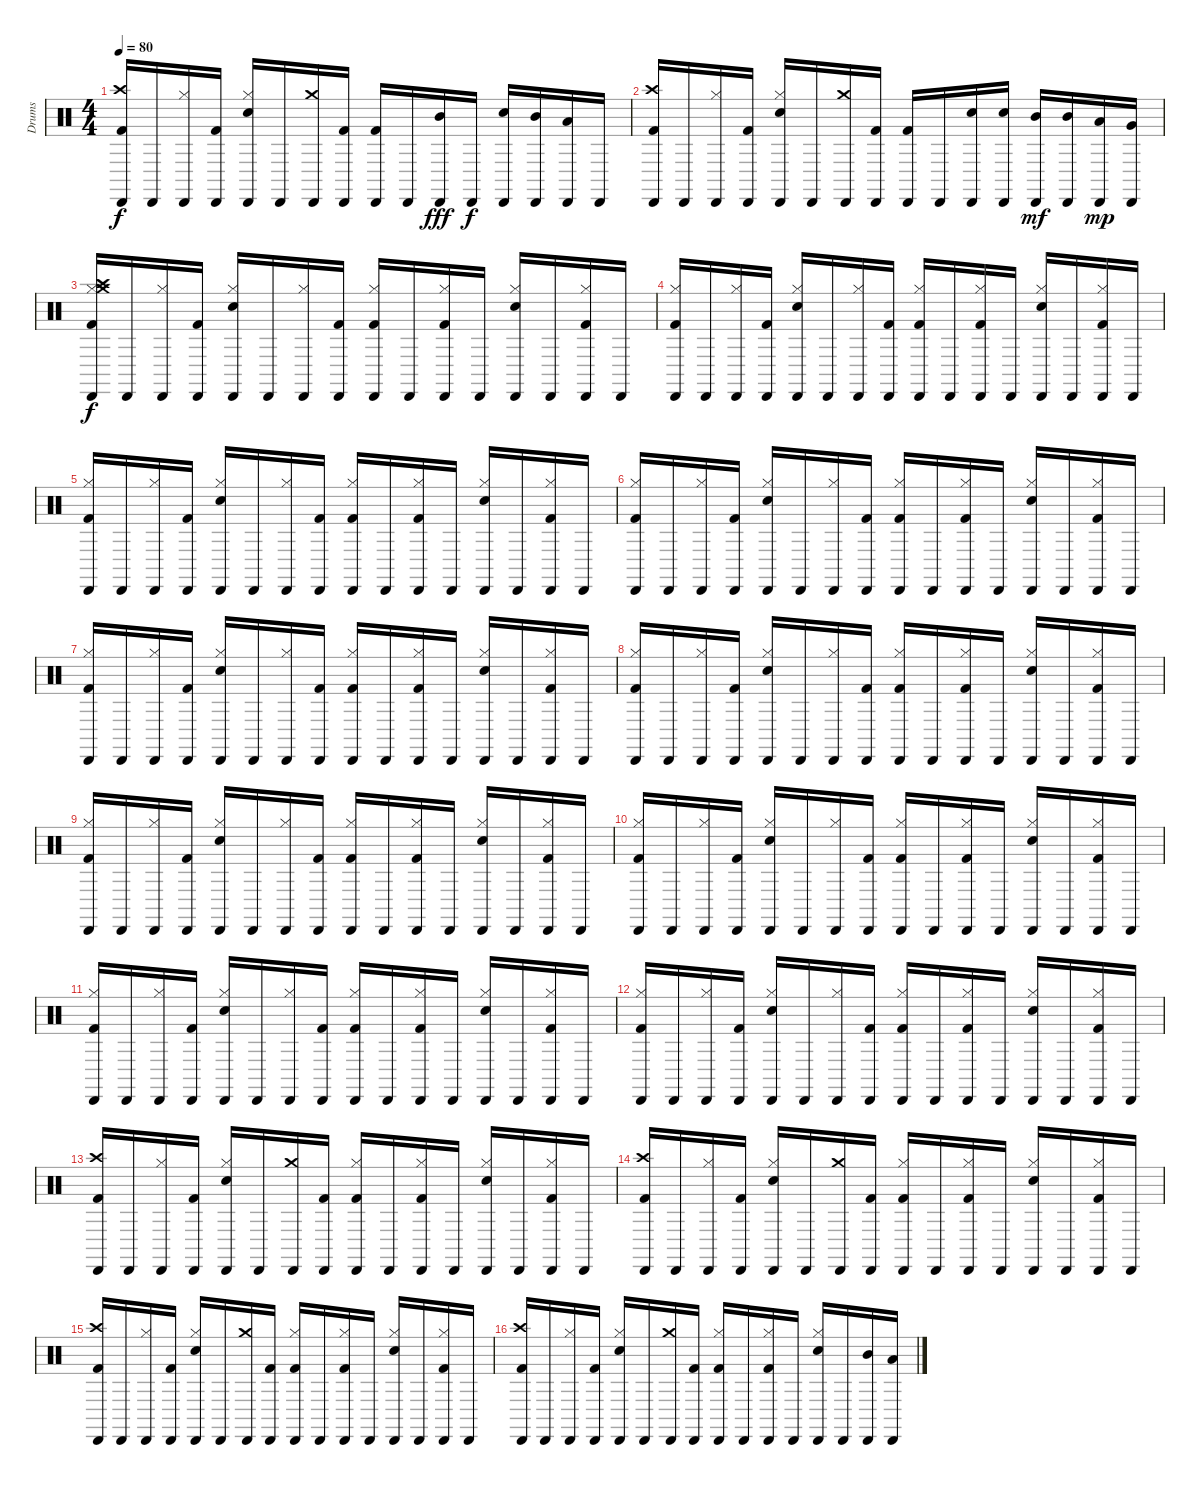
\track ("Drums" "Drums") {instrument percussion}
\staff {score}
\articulation defaults
\ts (4 4)
\tempo 80
\clef neutral
\ks c
("Cabasa (hit)" "Kick (hit) 2" "Crash high (hit)").16{dy f} "Cabasa (hit)".16 ("Cabasa (hit)" "Hi-Hat (closed)").16 ("Cabasa (hit)" "Kick (hit) 2").16 ("Cabasa (hit)" "Electric Snare (hit)" "Hi-Hat (closed)").16 "Cabasa (hit)".16 ("Cabasa (hit)" "Crash medium (hit)").16 ("Cabasa (hit)" "Kick (hit) 2").16 ("Cabasa (hit)" "Kick (hit) 2").16 "Cabasa (hit)".16 ("Cabasa (hit)" "Mid Tom (hit)").16{dy fff} "Cabasa (hit)".16{dy f} ("Cabasa (hit)" "Electric Snare (hit)").16 ("Cabasa (hit)" "Mid Tom (hit)").16 ("Cabasa (hit)" "Low Tom (hit)").16 "Cabasa (hit)".16 |
("Cabasa (hit)" "Kick (hit) 2" "Crash high (hit)").16 "Cabasa (hit)".16 ("Cabasa (hit)" "Hi-Hat (closed)").16 ("Cabasa (hit)" "Kick (hit) 2").16 ("Cabasa (hit)" "Electric Snare (hit)" "Hi-Hat (closed)").16 "Cabasa (hit)".16 ("Cabasa (hit)" "Crash medium (hit)").16 ("Cabasa (hit)" "Kick (hit) 2").16 ("Cabasa (hit)" "Kick (hit) 2").16 "Cabasa (hit)".16 ("Cabasa (hit)" "Electric Snare (hit)").16 ("Cabasa (hit)" "Electric Snare (hit)").16 ("Cabasa (hit)" "Mid Tom (hit)").16{dy mf} ("Cabasa (hit)" "Mid Tom (hit)").16 ("Cabasa (hit)" "Low Tom (hit)").16{dy mp} ("Cabasa (hit)" "Very Low Tom (hit)").16 |
("Cabasa (hit)" "Hi-Hat (closed)" "Kick (hit) 2" "Crash medium (hit)" "Crash high (hit)").16{dy f} "Cabasa (hit)".16 ("Cabasa (hit)" "Hi-Hat (closed)").16 ("Cabasa (hit)" "Kick (hit) 2").16 ("Cabasa (hit)" "Hi-Hat (closed)" "Electric Snare (hit)").16 "Cabasa (hit)".16 ("Cabasa (hit)" "Hi-Hat (closed)").16 ("Cabasa (hit)" "Kick (hit) 2").16 ("Cabasa (hit)" "Hi-Hat (closed)" "Kick (hit) 2").16 "Cabasa (hit)".16 ("Cabasa (hit)" "Hi-Hat (closed)" "Kick (hit) 2").16 "Cabasa (hit)".16 ("Cabasa (hit)" "Hi-Hat (closed)" "Electric Snare (hit)").16 "Cabasa (hit)".16 ("Cabasa (hit)" "Hi-Hat (closed)" "Kick (hit) 2").16 "Cabasa (hit)".16 |
("Cabasa (hit)" "Hi-Hat (closed)" "Kick (hit) 2").16 "Cabasa (hit)".16 ("Cabasa (hit)" "Hi-Hat (closed)").16 ("Cabasa (hit)" "Kick (hit) 2").16 ("Cabasa (hit)" "Hi-Hat (closed)" "Electric Snare (hit)").16 "Cabasa (hit)".16 ("Cabasa (hit)" "Hi-Hat (closed)").16 ("Cabasa (hit)" "Kick (hit) 2").16 ("Cabasa (hit)" "Hi-Hat (closed)" "Kick (hit) 2").16 "Cabasa (hit)".16 ("Cabasa (hit)" "Hi-Hat (closed)" "Kick (hit) 2").16 "Cabasa (hit)".16 ("Cabasa (hit)" "Hi-Hat (closed)" "Electric Snare (hit)").16 "Cabasa (hit)".16 ("Cabasa (hit)" "Hi-Hat (closed)" "Kick (hit) 2").16 "Cabasa (hit)".16 |
("Cabasa (hit)" "Hi-Hat (closed)" "Kick (hit) 2").16 "Cabasa (hit)".16 ("Cabasa (hit)" "Hi-Hat (closed)").16 ("Cabasa (hit)" "Kick (hit) 2").16 ("Cabasa (hit)" "Hi-Hat (closed)" "Electric Snare (hit)").16 "Cabasa (hit)".16 ("Cabasa (hit)" "Hi-Hat (closed)").16 ("Cabasa (hit)" "Kick (hit) 2").16 ("Cabasa (hit)" "Hi-Hat (closed)" "Kick (hit) 2").16 "Cabasa (hit)".16 ("Cabasa (hit)" "Hi-Hat (closed)" "Kick (hit) 2").16 "Cabasa (hit)".16 ("Cabasa (hit)" "Hi-Hat (closed)" "Electric Snare (hit)").16 "Cabasa (hit)".16 ("Cabasa (hit)" "Hi-Hat (closed)" "Kick (hit) 2").16 "Cabasa (hit)".16 |
("Cabasa (hit)" "Hi-Hat (closed)" "Kick (hit) 2").16 "Cabasa (hit)".16 ("Cabasa (hit)" "Hi-Hat (closed)").16 ("Cabasa (hit)" "Kick (hit) 2").16 ("Cabasa (hit)" "Hi-Hat (closed)" "Electric Snare (hit)").16 "Cabasa (hit)".16 ("Cabasa (hit)" "Hi-Hat (closed)").16 ("Cabasa (hit)" "Kick (hit) 2").16 ("Cabasa (hit)" "Hi-Hat (closed)" "Kick (hit) 2").16 "Cabasa (hit)".16 ("Cabasa (hit)" "Hi-Hat (closed)" "Kick (hit) 2").16 "Cabasa (hit)".16 ("Cabasa (hit)" "Hi-Hat (closed)" "Electric Snare (hit)").16 "Cabasa (hit)".16 ("Cabasa (hit)" "Hi-Hat (closed)" "Kick (hit) 2").16 "Cabasa (hit)".16 |
("Cabasa (hit)" "Hi-Hat (closed)" "Kick (hit) 2").16 "Cabasa (hit)".16 ("Cabasa (hit)" "Hi-Hat (closed)").16 ("Cabasa (hit)" "Kick (hit) 2").16 ("Cabasa (hit)" "Hi-Hat (closed)" "Electric Snare (hit)").16 "Cabasa (hit)".16 ("Cabasa (hit)" "Hi-Hat (closed)").16 ("Cabasa (hit)" "Kick (hit) 2").16 ("Cabasa (hit)" "Hi-Hat (closed)" "Kick (hit) 2").16 "Cabasa (hit)".16 ("Cabasa (hit)" "Hi-Hat (closed)" "Kick (hit) 2").16 "Cabasa (hit)".16 ("Cabasa (hit)" "Hi-Hat (closed)" "Electric Snare (hit)").16 "Cabasa (hit)".16 ("Cabasa (hit)" "Hi-Hat (closed)" "Kick (hit) 2").16 "Cabasa (hit)".16 |
("Cabasa (hit)" "Hi-Hat (closed)" "Kick (hit) 2").16 "Cabasa (hit)".16 ("Cabasa (hit)" "Hi-Hat (closed)").16 ("Cabasa (hit)" "Kick (hit) 2").16 ("Cabasa (hit)" "Hi-Hat (closed)" "Electric Snare (hit)").16 "Cabasa (hit)".16 ("Cabasa (hit)" "Hi-Hat (closed)").16 ("Cabasa (hit)" "Kick (hit) 2").16 ("Cabasa (hit)" "Hi-Hat (closed)" "Kick (hit) 2").16 "Cabasa (hit)".16 ("Cabasa (hit)" "Hi-Hat (closed)" "Kick (hit) 2").16 "Cabasa (hit)".16 ("Cabasa (hit)" "Hi-Hat (closed)" "Electric Snare (hit)").16 "Cabasa (hit)".16 ("Cabasa (hit)" "Hi-Hat (closed)" "Kick (hit) 2").16 "Cabasa (hit)".16 |
("Cabasa (hit)" "Hi-Hat (closed)" "Kick (hit) 2").16 "Cabasa (hit)".16 ("Cabasa (hit)" "Hi-Hat (closed)").16 ("Cabasa (hit)" "Kick (hit) 2").16 ("Cabasa (hit)" "Hi-Hat (closed)" "Electric Snare (hit)").16 "Cabasa (hit)".16 ("Cabasa (hit)" "Hi-Hat (closed)").16 ("Cabasa (hit)" "Kick (hit) 2").16 ("Cabasa (hit)" "Hi-Hat (closed)" "Kick (hit) 2").16 "Cabasa (hit)".16 ("Cabasa (hit)" "Hi-Hat (closed)" "Kick (hit) 2").16 "Cabasa (hit)".16 ("Cabasa (hit)" "Hi-Hat (closed)" "Electric Snare (hit)").16 "Cabasa (hit)".16 ("Cabasa (hit)" "Hi-Hat (closed)" "Kick (hit) 2").16 "Cabasa (hit)".16 |
("Cabasa (hit)" "Hi-Hat (closed)" "Kick (hit) 2").16 "Cabasa (hit)".16 ("Cabasa (hit)" "Hi-Hat (closed)").16 ("Cabasa (hit)" "Kick (hit) 2").16 ("Cabasa (hit)" "Hi-Hat (closed)" "Electric Snare (hit)").16 "Cabasa (hit)".16 ("Cabasa (hit)" "Hi-Hat (closed)").16 ("Cabasa (hit)" "Kick (hit) 2").16 ("Cabasa (hit)" "Hi-Hat (closed)" "Kick (hit) 2").16 "Cabasa (hit)".16 ("Cabasa (hit)" "Hi-Hat (closed)" "Kick (hit) 2").16 "Cabasa (hit)".16 ("Cabasa (hit)" "Hi-Hat (closed)" "Electric Snare (hit)").16 "Cabasa (hit)".16 ("Cabasa (hit)" "Hi-Hat (closed)" "Kick (hit) 2").16 "Cabasa (hit)".16 |
("Cabasa (hit)" "Hi-Hat (closed)" "Kick (hit) 2").16 "Cabasa (hit)".16 ("Cabasa (hit)" "Hi-Hat (closed)").16 ("Cabasa (hit)" "Kick (hit) 2").16 ("Cabasa (hit)" "Hi-Hat (closed)" "Electric Snare (hit)").16 "Cabasa (hit)".16 ("Cabasa (hit)" "Hi-Hat (closed)").16 ("Cabasa (hit)" "Kick (hit) 2").16 ("Cabasa (hit)" "Hi-Hat (closed)" "Kick (hit) 2").16 "Cabasa (hit)".16 ("Cabasa (hit)" "Hi-Hat (closed)" "Kick (hit) 2").16 "Cabasa (hit)".16 ("Cabasa (hit)" "Hi-Hat (closed)" "Electric Snare (hit)").16 "Cabasa (hit)".16 ("Cabasa (hit)" "Hi-Hat (closed)" "Kick (hit) 2").16 "Cabasa (hit)".16 |
("Cabasa (hit)" "Hi-Hat (closed)" "Kick (hit) 2").16 "Cabasa (hit)".16 ("Cabasa (hit)" "Hi-Hat (closed)").16 ("Cabasa (hit)" "Kick (hit) 2").16 ("Cabasa (hit)" "Hi-Hat (closed)" "Electric Snare (hit)").16 "Cabasa (hit)".16 ("Cabasa (hit)" "Hi-Hat (closed)").16 ("Cabasa (hit)" "Kick (hit) 2").16 ("Cabasa (hit)" "Hi-Hat (closed)" "Kick (hit) 2").16 "Cabasa (hit)".16 ("Cabasa (hit)" "Hi-Hat (closed)" "Kick (hit) 2").16 "Cabasa (hit)".16 ("Cabasa (hit)" "Hi-Hat (closed)" "Electric Snare (hit)").16 "Cabasa (hit)".16 ("Cabasa (hit)" "Hi-Hat (closed)" "Kick (hit) 2").16 "Cabasa (hit)".16 |
("Cabasa (hit)" "Crash high (hit)" "Kick (hit) 2").16 "Cabasa (hit)".16 ("Cabasa (hit)" "Hi-Hat (closed)").16 ("Cabasa (hit)" "Kick (hit) 2").16 ("Cabasa (hit)" "Hi-Hat (closed)" "Electric Snare (hit)").16 "Cabasa (hit)".16 ("Cabasa (hit)" "Crash medium (hit)").16 ("Cabasa (hit)" "Kick (hit) 2").16 ("Cabasa (hit)" "Hi-Hat (closed)" "Kick (hit) 2").16 "Cabasa (hit)".16 ("Cabasa (hit)" "Hi-Hat (closed)" "Kick (hit) 2").16 "Cabasa (hit)".16 ("Cabasa (hit)" "Hi-Hat (closed)" "Electric Snare (hit)").16 "Cabasa (hit)".16 ("Cabasa (hit)" "Hi-Hat (closed)" "Kick (hit) 2").16 "Cabasa (hit)".16 |
("Cabasa (hit)" "Crash high (hit)" "Kick (hit) 2").16 "Cabasa (hit)".16 ("Cabasa (hit)" "Hi-Hat (closed)").16 ("Cabasa (hit)" "Kick (hit) 2").16 ("Cabasa (hit)" "Hi-Hat (closed)" "Electric Snare (hit)").16 "Cabasa (hit)".16 ("Cabasa (hit)" "Crash medium (hit)").16 ("Cabasa (hit)" "Kick (hit) 2").16 ("Cabasa (hit)" "Hi-Hat (closed)" "Kick (hit) 2").16 "Cabasa (hit)".16 ("Cabasa (hit)" "Hi-Hat (closed)" "Kick (hit) 2").16 "Cabasa (hit)".16 ("Cabasa (hit)" "Hi-Hat (closed)" "Electric Snare (hit)").16 "Cabasa (hit)".16 ("Cabasa (hit)" "Hi-Hat (closed)" "Kick (hit) 2").16 "Cabasa (hit)".16 |
("Cabasa (hit)" "Crash high (hit)" "Kick (hit) 2").16 "Cabasa (hit)".16 ("Cabasa (hit)" "Hi-Hat (closed)").16 ("Cabasa (hit)" "Kick (hit) 2").16 ("Cabasa (hit)" "Hi-Hat (closed)" "Electric Snare (hit)").16 "Cabasa (hit)".16 ("Cabasa (hit)" "Crash medium (hit)").16 ("Cabasa (hit)" "Kick (hit) 2").16 ("Cabasa (hit)" "Hi-Hat (closed)" "Kick (hit) 2").16 "Cabasa (hit)".16 ("Cabasa (hit)" "Hi-Hat (closed)" "Kick (hit) 2").16 "Cabasa (hit)".16 ("Cabasa (hit)" "Hi-Hat (closed)" "Electric Snare (hit)").16 "Cabasa (hit)".16 ("Cabasa (hit)" "Hi-Hat (closed)" "Kick (hit) 2").16 "Cabasa (hit)".16 |
("Cabasa (hit)" "Crash high (hit)" "Kick (hit) 2").16 "Cabasa (hit)".16 ("Cabasa (hit)" "Hi-Hat (closed)").16 ("Cabasa (hit)" "Kick (hit) 2").16 ("Cabasa (hit)" "Hi-Hat (closed)" "Electric Snare (hit)").16 "Cabasa (hit)".16 ("Cabasa (hit)" "Crash medium (hit)").16 ("Cabasa (hit)" "Kick (hit) 2").16 ("Cabasa (hit)" "Hi-Hat (closed)" "Kick (hit) 2").16 "Cabasa (hit)".16 ("Cabasa (hit)" "Hi-Hat (closed)" "Kick (hit) 2").16 "Cabasa (hit)".16 ("Cabasa (hit)" "Hi-Hat (closed)" "Electric Snare (hit)").16 "Cabasa (hit)".16 ("Cabasa (hit)" "Mid Tom (hit)").16 ("Cabasa (hit)" "Low Tom (hit)").16
